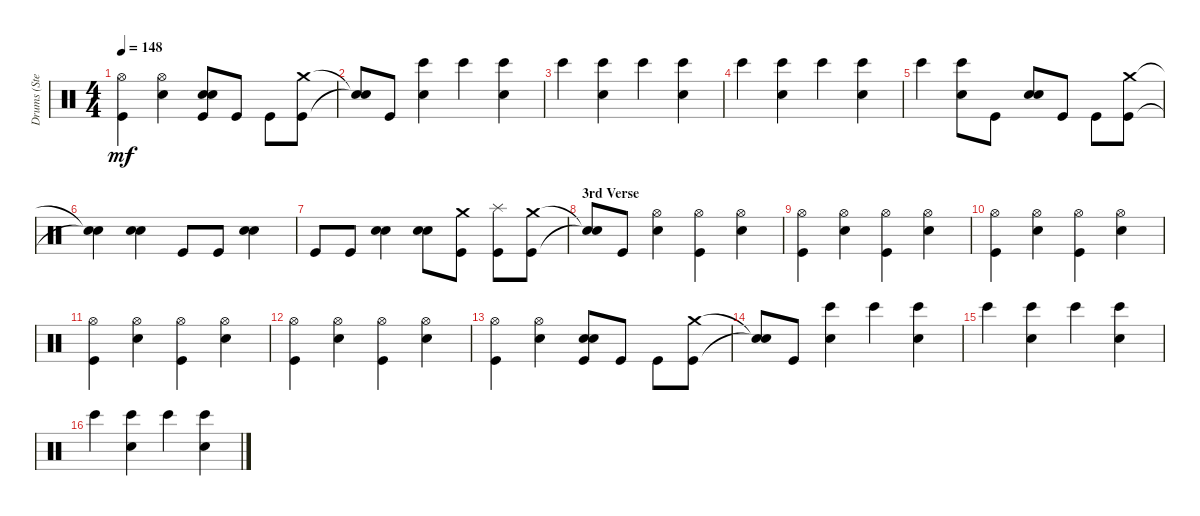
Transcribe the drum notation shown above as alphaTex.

\track ("Drums (Steven)" "Drums (Ste") {instrument percussion}
\staff {score}
\articulation defaults
\ts (4 4)
\tempo 148
\clef neutral
\ks c
("Kick (hit)" "Hi-Hat (open)").4{dy mf} ("Snare (hit) 2" "Hi-Hat (open)").4 ("Snare (hit) 2" "Kick (hit)" "Snare (hit) 2").8 "Kick (hit)".8 "Kick (hit)".8 ("Kick (hit)" "Crash medium (hit)").8 |
("Snare (hit)"{t} "Snare (hit)"{t}).8 "Kick (hit)".8 ("Snare (hit) 2" "Bongo High (hit)").4 "Bongo High (hit)".4 ("Snare (hit) 2" "Bongo High (hit)").4 |
"Bongo High (hit)".4 ("Snare (hit) 2" "Bongo High (hit)").4 "Bongo High (hit)".4 ("Snare (hit) 2" "Bongo High (hit)").4 |
"Bongo High (hit)".4 ("Snare (hit) 2" "Bongo High (hit)").4 "Bongo High (hit)".4 ("Snare (hit) 2" "Bongo High (hit)").4 |
"Bongo High (hit)".4 ("Snare (hit) 2" "Bongo High (hit)").8 "Kick (hit)".8 ("Snare (hit) 2" "Snare (hit) 2").8 "Kick (hit)".8 "Kick (hit)".8 ("Kick (hit)" "Crash medium (hit)").8 |
("Snare (hit)"{t} "Snare (hit)"{t}).4 ("Snare (hit) 2" "Snare (hit) 2").4 "Kick (hit)".8 "Kick (hit)".8 ("Snare (hit) 2" "Snare (hit) 2").4 |
"Kick (hit)".8 "Kick (hit)".8 ("Snare (hit) 2" "Snare (hit) 2").4 ("Snare (hit) 2" "Snare (hit) 2").8 ("Kick (hit)" "Crash medium (hit)").8 ("Kick (hit)" "Splash (hit)").8 ("Kick (hit)" "Crash medium (hit)").8 |
\section ("" "3rd Verse")
("Snare (hit)"{t} "Snare (hit)"{t}).8 "Kick (hit)".8 ("Snare (hit) 2" "Hi-Hat (open)").4 ("Kick (hit)" "Hi-Hat (open)").4 ("Snare (hit) 2" "Hi-Hat (open)").4 |
("Kick (hit)" "Hi-Hat (open)").4 ("Snare (hit) 2" "Hi-Hat (open)").4 ("Kick (hit)" "Hi-Hat (open)").4 ("Snare (hit) 2" "Hi-Hat (open)").4 |
("Kick (hit)" "Hi-Hat (open)").4 ("Snare (hit) 2" "Hi-Hat (open)").4 ("Kick (hit)" "Hi-Hat (open)").4 ("Snare (hit) 2" "Hi-Hat (open)").4 |
("Kick (hit)" "Hi-Hat (open)").4 ("Snare (hit) 2" "Hi-Hat (open)").4 ("Kick (hit)" "Hi-Hat (open)").4 ("Snare (hit) 2" "Hi-Hat (open)").4 |
("Kick (hit)" "Hi-Hat (open)").4 ("Snare (hit) 2" "Hi-Hat (open)").4 ("Kick (hit)" "Hi-Hat (open)").4 ("Snare (hit) 2" "Hi-Hat (open)").4 |
("Kick (hit)" "Hi-Hat (open)").4 ("Snare (hit) 2" "Hi-Hat (open)").4 ("Snare (hit) 2" "Kick (hit)" "Snare (hit) 2").8 "Kick (hit)".8 "Kick (hit)".8 ("Kick (hit)" "Crash medium (hit)").8 |
("Snare (hit)"{t} "Snare (hit)"{t}).8 "Kick (hit)".8 ("Snare (hit) 2" "Bongo High (hit)").4 "Bongo High (hit)".4 ("Snare (hit) 2" "Bongo High (hit)").4 |
"Bongo High (hit)".4 ("Snare (hit) 2" "Bongo High (hit)").4 "Bongo High (hit)".4 ("Snare (hit) 2" "Bongo High (hit)").4 |
"Bongo High (hit)".4 ("Snare (hit) 2" "Bongo High (hit)").4 "Bongo High (hit)".4 ("Snare (hit) 2" "Bongo High (hit)").4
